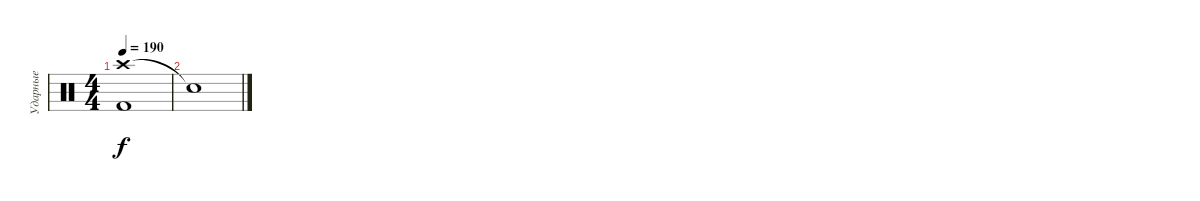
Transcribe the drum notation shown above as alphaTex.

\track ("Ударные" "Ударные") {instrument percussion}
\staff {score}
\articulation defaults
\ts (4 4)
\tempo 190
\clef neutral
\ks c
("Crash high (hit)" "Kick (hit) 2").1{dy f} |
"Snare (hit)"{t}.1
